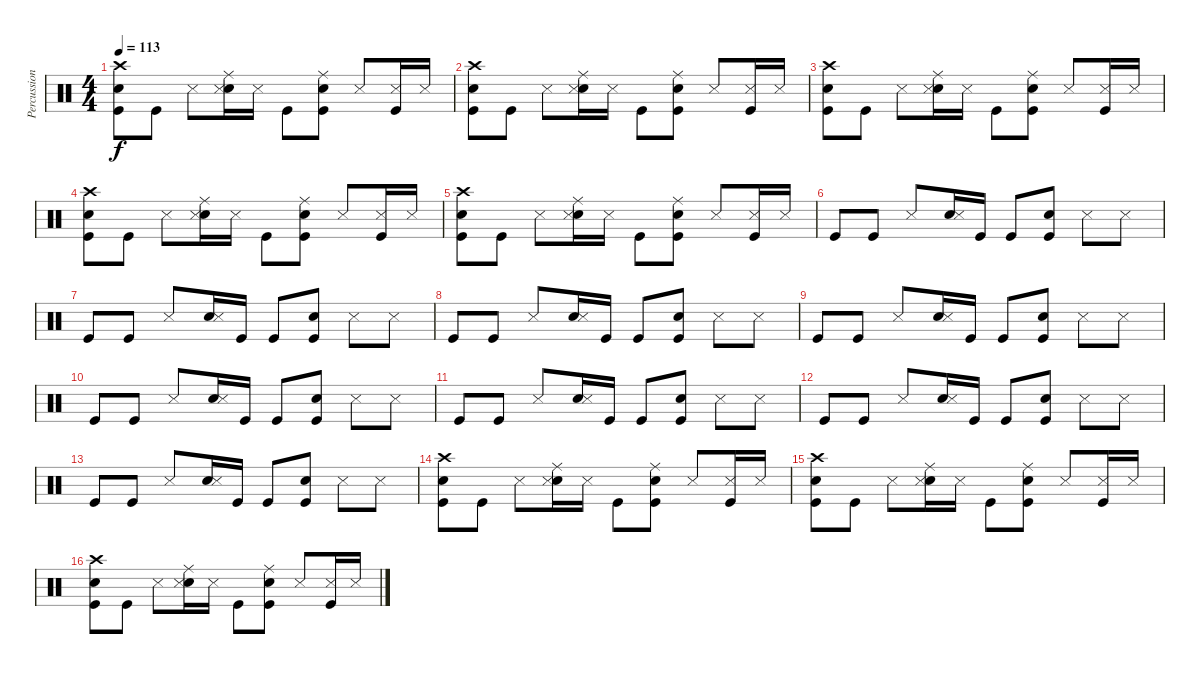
\track ("Percussion" "Percussion") {instrument percussion}
\staff {score}
\articulation defaults
\ts (4 4)
\tempo 113
\clef neutral
\ks c
("Crash high (hit)" "Electric Snare (hit)" "Kick (hit)").8{dy f} "Kick (hit)".8 "Snare (side stick) 3".8 ("Ride (middle)" "Electric Snare (hit)" "Snare (side stick) 3").16 "Snare (side stick) 3".16 "Kick (hit)".8 ("Ride (middle)" "Electric Snare (hit)" "Kick (hit)").8 "Snare (side stick) 3".8 ("Snare (side stick) 3" "Kick (hit)").16 "Snare (side stick) 3".16 |
("Crash high (hit)" "Electric Snare (hit)" "Kick (hit)").8 "Kick (hit)".8 "Snare (side stick) 3".8 ("Ride (middle)" "Electric Snare (hit)" "Snare (side stick) 3").16 "Snare (side stick) 3".16 "Kick (hit)".8 ("Ride (middle)" "Electric Snare (hit)" "Kick (hit)").8 "Snare (side stick) 3".8 ("Snare (side stick) 3" "Kick (hit)").16 "Snare (side stick) 3".16 |
("Crash high (hit)" "Electric Snare (hit)" "Kick (hit)").8 "Kick (hit)".8 "Snare (side stick) 3".8 ("Ride (middle)" "Electric Snare (hit)" "Snare (side stick) 3").16 "Snare (side stick) 3".16 "Kick (hit)".8 ("Ride (middle)" "Electric Snare (hit)" "Kick (hit)").8 "Snare (side stick) 3".8 ("Snare (side stick) 3" "Kick (hit)").16 "Snare (side stick) 3".16 |
("Crash high (hit)" "Electric Snare (hit)" "Kick (hit)").8 "Kick (hit)".8 "Snare (side stick) 3".8 ("Ride (middle)" "Electric Snare (hit)" "Snare (side stick) 3").16 "Snare (side stick) 3".16 "Kick (hit)".8 ("Ride (middle)" "Electric Snare (hit)" "Kick (hit)").8 "Snare (side stick) 3".8 ("Snare (side stick) 3" "Kick (hit)").16 "Snare (side stick) 3".16 |
("Crash high (hit)" "Electric Snare (hit)" "Kick (hit)").8 "Kick (hit)".8 "Snare (side stick) 3".8 ("Ride (middle)" "Electric Snare (hit)" "Snare (side stick) 3").16 "Snare (side stick) 3".16 "Kick (hit)".8 ("Ride (middle)" "Electric Snare (hit)" "Kick (hit)").8 "Snare (side stick) 3".8 ("Snare (side stick) 3" "Kick (hit)").16 "Snare (side stick) 3".16 |
"Kick (hit)".8 "Kick (hit)".8 "Snare (side stick) 3".8 ("Electric Snare (hit)" "Snare (side stick) 3").16 "Kick (hit)".16 "Kick (hit)".8 ("Electric Snare (hit)" "Kick (hit)").8 "Snare (side stick) 3".8 "Snare (side stick) 3".8 |
"Kick (hit)".8 "Kick (hit)".8 "Snare (side stick) 3".8 ("Electric Snare (hit)" "Snare (side stick) 3").16 "Kick (hit)".16 "Kick (hit)".8 ("Electric Snare (hit)" "Kick (hit)").8 "Snare (side stick) 3".8 "Snare (side stick) 3".8 |
"Kick (hit)".8 "Kick (hit)".8 "Snare (side stick) 3".8 ("Electric Snare (hit)" "Snare (side stick) 3").16 "Kick (hit)".16 "Kick (hit)".8 ("Electric Snare (hit)" "Kick (hit)").8 "Snare (side stick) 3".8 "Snare (side stick) 3".8 |
"Kick (hit)".8 "Kick (hit)".8 "Snare (side stick) 3".8 ("Electric Snare (hit)" "Snare (side stick) 3").16 "Kick (hit)".16 "Kick (hit)".8 ("Electric Snare (hit)" "Kick (hit)").8 "Snare (side stick) 3".8 "Snare (side stick) 3".8 |
"Kick (hit)".8 "Kick (hit)".8 "Snare (side stick) 3".8 ("Electric Snare (hit)" "Snare (side stick) 3").16 "Kick (hit)".16 "Kick (hit)".8 ("Electric Snare (hit)" "Kick (hit)").8 "Snare (side stick) 3".8 "Snare (side stick) 3".8 |
"Kick (hit)".8 "Kick (hit)".8 "Snare (side stick) 3".8 ("Electric Snare (hit)" "Snare (side stick) 3").16 "Kick (hit)".16 "Kick (hit)".8 ("Electric Snare (hit)" "Kick (hit)").8 "Snare (side stick) 3".8 "Snare (side stick) 3".8 |
"Kick (hit)".8 "Kick (hit)".8 "Snare (side stick) 3".8 ("Electric Snare (hit)" "Snare (side stick) 3").16 "Kick (hit)".16 "Kick (hit)".8 ("Electric Snare (hit)" "Kick (hit)").8 "Snare (side stick) 3".8 "Snare (side stick) 3".8 |
"Kick (hit)".8 "Kick (hit)".8 "Snare (side stick) 3".8 ("Electric Snare (hit)" "Snare (side stick) 3").16 "Kick (hit)".16 "Kick (hit)".8 ("Electric Snare (hit)" "Kick (hit)").8 "Snare (side stick) 3".8 "Snare (side stick) 3".8 |
("Crash high (hit)" "Electric Snare (hit)" "Kick (hit)").8 "Kick (hit)".8 "Snare (side stick) 3".8 ("Ride (middle)" "Electric Snare (hit)" "Snare (side stick) 3").16 "Snare (side stick) 3".16 "Kick (hit)".8 ("Ride (middle)" "Electric Snare (hit)" "Kick (hit)").8 "Snare (side stick) 3".8 ("Snare (side stick) 3" "Kick (hit)").16 "Snare (side stick) 3".16 |
("Crash high (hit)" "Electric Snare (hit)" "Kick (hit)").8 "Kick (hit)".8 "Snare (side stick) 3".8 ("Ride (middle)" "Electric Snare (hit)" "Snare (side stick) 3").16 "Snare (side stick) 3".16 "Kick (hit)".8 ("Ride (middle)" "Electric Snare (hit)" "Kick (hit)").8 "Snare (side stick) 3".8 ("Snare (side stick) 3" "Kick (hit)").16 "Snare (side stick) 3".16 |
("Crash high (hit)" "Electric Snare (hit)" "Kick (hit)").8 "Kick (hit)".8 "Snare (side stick) 3".8 ("Ride (middle)" "Electric Snare (hit)" "Snare (side stick) 3").16 "Snare (side stick) 3".16 "Kick (hit)".8 ("Ride (middle)" "Electric Snare (hit)" "Kick (hit)").8 "Snare (side stick) 3".8 ("Snare (side stick) 3" "Kick (hit)").16 "Snare (side stick) 3".16
